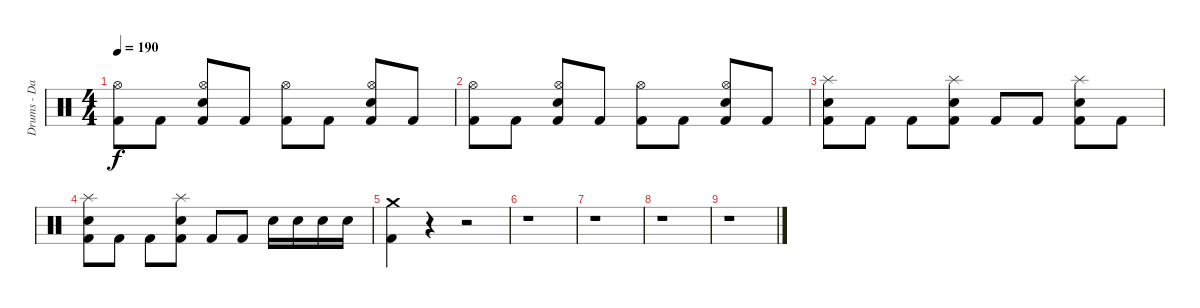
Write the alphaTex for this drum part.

\track ("Drums - Daniel Zimmermann" "Drums - Da") {instrument percussion}
\staff {score}
\articulation defaults
\ts (4 4)
\tempo 190
\clef neutral
\ks c
("Kick (hit) 2" "Hi-Hat (open)").8{dy f} "Kick (hit) 2".8 ("Kick (hit) 2" "Electric Snare (hit)" "Hi-Hat (open)").8 "Kick (hit) 2".8 ("Kick (hit) 2" "Hi-Hat (open)").8 "Kick (hit) 2".8 ("Kick (hit) 2" "Electric Snare (hit)" "Hi-Hat (open)").8 "Kick (hit) 2".8 |
("Kick (hit) 2" "Hi-Hat (open)").8 "Kick (hit) 2".8 ("Kick (hit) 2" "Electric Snare (hit)" "Hi-Hat (open)").8 "Kick (hit) 2".8 ("Kick (hit) 2" "Hi-Hat (open)").8 "Kick (hit) 2".8 ("Kick (hit) 2" "Electric Snare (hit)" "Hi-Hat (open)").8 "Kick (hit) 2".8 |
("Kick (hit) 2" "Electric Snare (hit)" "Splash (hit)").8 "Kick (hit) 2".8 "Kick (hit) 2".8 ("Kick (hit) 2" "Electric Snare (hit)" "Splash (hit)").8 "Kick (hit) 2".8 "Kick (hit) 2".8 ("Kick (hit) 2" "Electric Snare (hit)" "Splash (hit)").8 "Kick (hit) 2".8 |
("Kick (hit) 2" "Electric Snare (hit)" "Splash (hit)").8 "Kick (hit) 2".8 "Kick (hit) 2".8 ("Kick (hit) 2" "Electric Snare (hit)" "Splash (hit)").8 "Kick (hit) 2".8 "Kick (hit) 2".8 "Electric Snare (hit)".16 "Electric Snare (hit)".16 "Electric Snare (hit)".16 "Electric Snare (hit)".16 |
("Kick (hit) 2" "Crash medium (hit)").4 r.4 r.2 |
r.1 |
r.1 |
r.1 |
r.1
